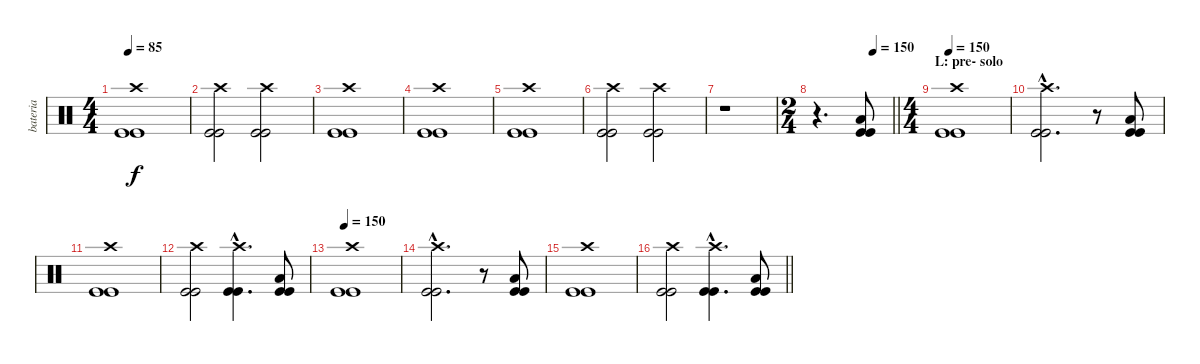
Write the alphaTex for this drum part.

\track ("bateria" "bateria") {instrument percussion}
\staff {score}
\articulation defaults
\ts (4 4)
\tempo 85
\clef neutral
\ks c
("Crash high (hit)" "Kick (hit)" "Kick (hit)").1{dy f} |
("Crash high (hit)" "Kick (hit)" "Kick (hit)").2 ("Crash high (hit)" "Kick (hit)" "Kick (hit)").2 |
("Crash high (hit)" "Kick (hit)" "Kick (hit)").1 |
("Crash high (hit)" "Kick (hit)" "Kick (hit)").1 |
("Crash high (hit)" "Kick (hit)" "Kick (hit)").1 |
("Crash high (hit)" "Kick (hit)" "Kick (hit)").2 ("Crash high (hit)" "Kick (hit)" "Kick (hit)").2 |
r.1 |
\ts (2 4)
\tempo (150 0.75)
\barLineRight lightlight
r.4{d} ("Low Tom (hit)" "Kick (hit)" "Kick (hit)").8 |
\ts (4 4)
\section ("" "L: pre- solo")
\tempo 150
("Crash high (hit)" "Kick (hit)" "Kick (hit)").1 |
("Crash high (hit)"{hac} "Kick (hit)"{hac} "Kick (hit)"{hac}).2{d} r.8 ("Low Tom (hit)" "Kick (hit)" "Kick (hit)").8 |
("Crash high (hit)" "Kick (hit)" "Kick (hit)").1 |
("Crash high (hit)" "Kick (hit)" "Kick (hit)").2 ("Crash high (hit)"{hac} "Kick (hit)"{hac} "Kick (hit)"{hac}).4{d} ("Low Tom (hit)" "Kick (hit)" "Kick (hit)").8 |
\tempo 150
("Crash high (hit)" "Kick (hit)" "Kick (hit)").1 |
("Crash high (hit)"{hac} "Kick (hit)"{hac} "Kick (hit)"{hac}).2{d} r.8 ("Low Tom (hit)" "Kick (hit)" "Kick (hit)").8 |
("Crash high (hit)" "Kick (hit)" "Kick (hit)").1 |
\barLineRight lightlight
("Crash high (hit)" "Kick (hit)" "Kick (hit)").2 ("Crash high (hit)"{hac} "Kick (hit)"{hac} "Kick (hit)"{hac}).4{d} ("Low Tom (hit)" "Kick (hit)" "Kick (hit)").8
